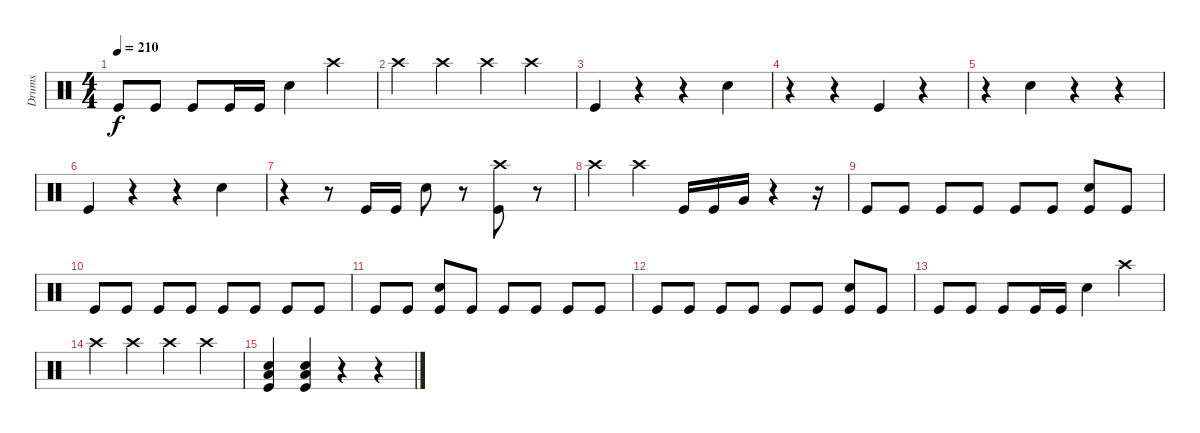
\track ("Drums" "Drums") {instrument percussion}
\staff {score}
\articulation defaults
\ts (4 4)
\tempo 210
\clef neutral
\ks c "Kick (hit)".8{dy f} "Kick (hit)".8 "Kick (hit)".8 "Kick (hit)".16 "Kick (hit)".16 "Electric Snare (hit)".4 "Crash high (hit)".4
|
"Crash high (hit)".4 "Crash high (hit)".4 "Crash high (hit)".4 "Crash high (hit)".4 |
"Kick (hit)".4 r.4 r.4 "Electric Snare (hit)".4 |
r.4 r.4 "Kick (hit)".4 r.4 |
r.4 "Electric Snare (hit)".4 r.4 r.4 |
"Kick (hit)".4 r.4 r.4 "Electric Snare (hit)".4 |
r.4 r.8 "Kick (hit)".16 "Kick (hit)".16 "Electric Snare (hit)".8 r.8 ("Crash high (hit)" "Kick (hit)").8 r.8 |
"Crash high (hit)".4 "Crash high (hit)".4 "Kick (hit)".16 "Kick (hit)".16 "Very Low Tom (hit)".16 r.4 r.16 |
"Kick (hit)".8 "Kick (hit)".8 "Kick (hit)".8 "Kick (hit)".8 "Kick (hit)".8 "Kick (hit)".8 ("Electric Snare (hit)" "Kick (hit)").8 "Kick (hit)".8 |
"Kick (hit)".8 "Kick (hit)".8 "Kick (hit)".8 "Kick (hit)".8 "Kick (hit)".8 "Kick (hit)".8 "Kick (hit)".8 "Kick (hit)".8 |
"Kick (hit)".8 "Kick (hit)".8 ("Electric Snare (hit)" "Kick (hit)").8 "Kick (hit)".8 "Kick (hit)".8 "Kick (hit)".8 "Kick (hit)".8 "Kick (hit)".8 |
"Kick (hit)".8 "Kick (hit)".8 "Kick (hit)".8 "Kick (hit)".8 "Kick (hit)".8 "Kick (hit)".8 ("Electric Snare (hit)" "Kick (hit)").8 "Kick (hit)".8 |
"Kick (hit)".8 "Kick (hit)".8 "Kick (hit)".8 "Kick (hit)".16 "Kick (hit)".16 "Electric Snare (hit)".4 "Crash high (hit)".4 |
"Crash high (hit)".4 "Crash high (hit)".4 "Crash high (hit)".4 "Crash high (hit)".4 |
("Electric Snare (hit)" "Low Floor Tom (hit)" "Kick (hit)").4 ("Electric Snare (hit)" "Low Floor Tom (hit)" "Kick (hit)").4 r.4 r.4
